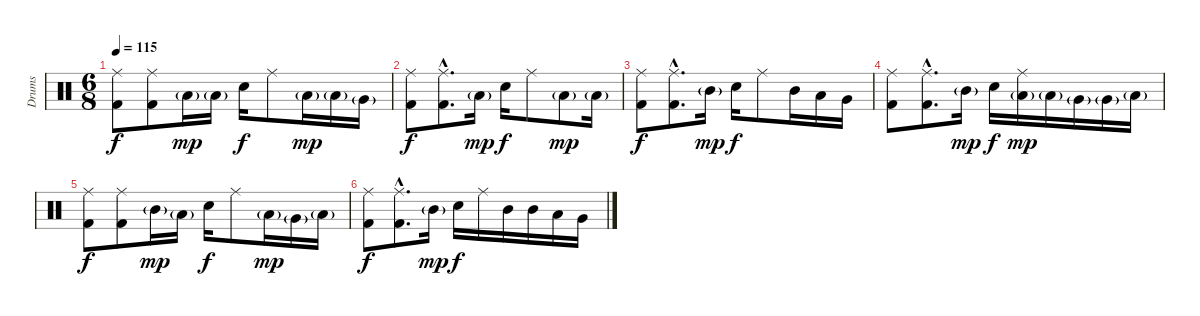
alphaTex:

\track ("Drums" "Drums") {instrument percussion}
\staff {score}
\articulation defaults
\ts (6 8)
\tempo 115
\clef neutral
\ks c
("Ride (middle)" "Kick (hit) 2").8{dy f} ("Ride (middle)" "Kick (hit) 2").8 "Low Tom (hit)"{g}.16{dy mp} "Low Tom (hit)"{g}.16 "Electric Snare (hit)".16{dy f} "Ride (middle)".8 "Low Tom (hit)"{g}.16{dy mp} "Low Tom (hit)"{g}.16 "Very Low Tom (hit)"{g}.16 |
("Ride (middle)" "Kick (hit) 2").8{dy f} ("Ride (middle)"{hac} "Kick (hit) 2"{hac}).8{d} "Low Tom (hit)"{g}.16{dy mp} "Electric Snare (hit)".16{dy f} "Ride (middle)".8 "Low Tom (hit)"{g}.8{dy mp} "Low Floor Tom (hit)"{g}.16 |
("Ride (middle)" "Kick (hit) 2").8{dy f} ("Ride (middle)"{hac} "Kick (hit) 2"{hac}).8{d} "Mid Tom (hit)"{g}.16{dy mp} "Electric Snare (hit)".16{dy f} "Ride (middle)".8 "Mid Tom (hit)".16 "Low Tom (hit)".16 "Very Low Tom (hit)".16 |
("Ride (middle)" "Kick (hit) 2").8 ("Ride (middle)"{hac} "Kick (hit) 2"{hac}).8{d} "Mid Tom (hit)"{g}.16{dy mp} "Electric Snare (hit)".16{dy f} ("Ride (middle)" "Low Tom (hit)"{g}).16{dy mp} "Low Tom (hit)"{g}.16 "Very Low Tom (hit)"{g}.16 "Very Low Tom (hit)"{g}.16 "Low Floor Tom (hit)"{g}.16 |
("Ride (middle)" "Kick (hit) 2").8{dy f} ("Ride (middle)" "Kick (hit) 2").8 "Mid Tom (hit)"{g}.16{dy mp} "Low Tom (hit)"{g}.16 "Electric Snare (hit)".16{dy f} "Ride (middle)".8 "Low Tom (hit)"{g}.16{dy mp} "Very Low Tom (hit)"{g}.16 "Low Floor Tom (hit)"{g}.16 |
("Ride (middle)" "Kick (hit) 2").8{dy f} ("Ride (middle)"{hac} "Kick (hit) 2"{hac}).8{d} "Mid Tom (hit)"{g}.16{dy mp} "Electric Snare (hit)".16{dy f} "Ride (middle)".16 "Mid Tom (hit)".16 "Mid Tom (hit)".16 "Low Tom (hit)".16 "Very Low Tom (hit)".16
